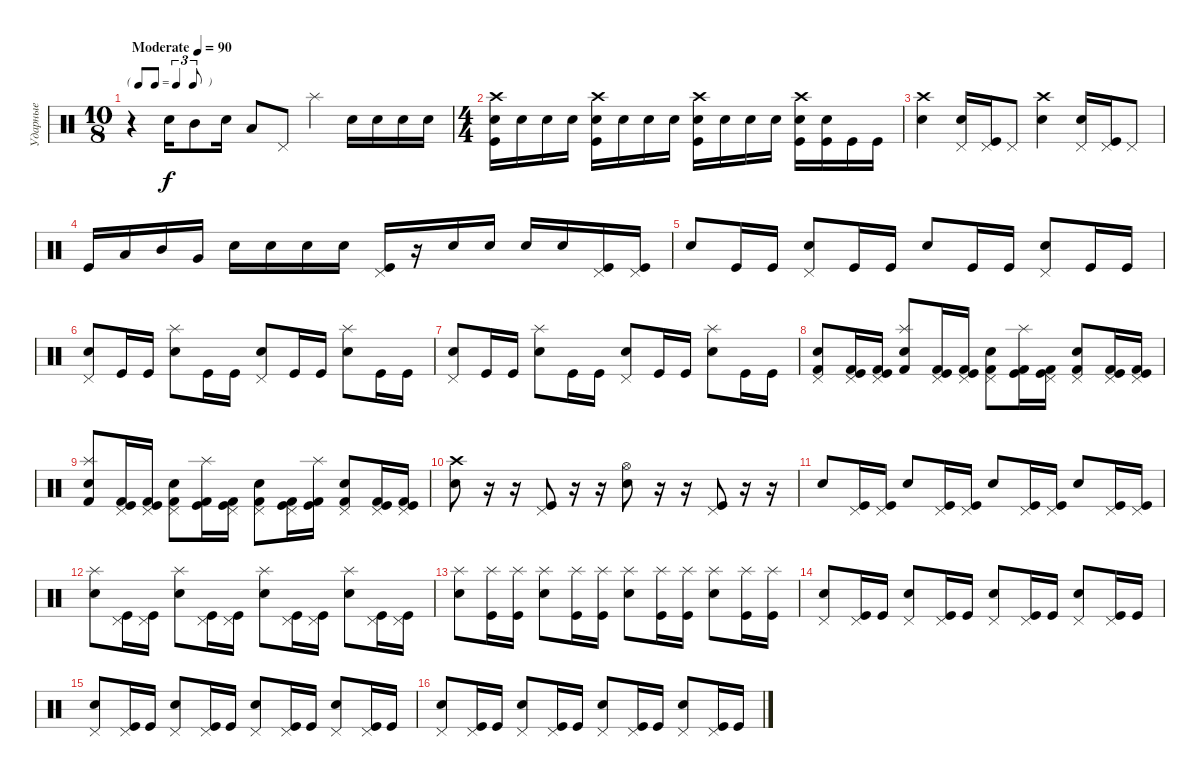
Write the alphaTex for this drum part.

\track ("Ударные" "Ударные") {instrument percussion}
\staff {score}
\articulation defaults
\ts (10 8)
\tf triplet8th
\tempo (90 "Moderate")
\clef neutral
\ks c
r.4{dy f} "Electric Snare (hit)".16 "Mid Tom (hit)".8 "Electric Snare (hit)".16 "Low Tom (hit)".8 "Pedal Hi-Hat (hit)".8 "Splash (hit)".4 "Electric Snare (hit)".16 "Electric Snare (hit)".16 "Electric Snare (hit)".16 "Electric Snare (hit)".16 |
\ts (4 4)
("Electric Snare (hit)" "Kick (hit)" "Crash high (hit)").16 "Electric Snare (hit)".16 "Electric Snare (hit)".16 "Electric Snare (hit)".16 ("Electric Snare (hit)" "Kick (hit)" "Crash high (hit)").16 "Electric Snare (hit)".16 "Electric Snare (hit)".16 "Electric Snare (hit)".16 ("Electric Snare (hit)" "Kick (hit)" "Crash high (hit)").16 "Electric Snare (hit)".16 "Electric Snare (hit)".16 "Electric Snare (hit)".16 ("Electric Snare (hit)" "Kick (hit)" "Crash high (hit)").16 ("Snare (hit) 2" "Kick (hit)").16 "Kick (hit)".16 "Kick (hit)".16 |
("Crash high (hit)" "Electric Snare (hit)").4 ("Snare (hit) 2" "Pedal Hi-Hat (hit)").16 ("Kick (hit)" "Pedal Hi-Hat (hit)").16 "Pedal Hi-Hat (hit)".8 ("Crash high (hit)" "Electric Snare (hit)").4 ("Snare (hit) 2" "Pedal Hi-Hat (hit)").16 ("Kick (hit)" "Pedal Hi-Hat (hit)").16 "Pedal Hi-Hat (hit)".8 |
"Kick (hit)".16 "Low Tom (hit)".16 "Mid Tom (hit)".16 "Very Low Tom (hit)".16 "Electric Snare (hit)".16 "Electric Snare (hit)".16 "Electric Snare (hit)".16 "Electric Snare (hit)".16 ("Kick (hit)" "Pedal Hi-Hat (hit)").16 r.16 "Electric Snare (hit)".16 "Electric Snare (hit)".16 "Electric Snare (hit)".16 "Electric Snare (hit)".16 ("Kick (hit)" "Pedal Hi-Hat (hit)").16 ("Kick (hit)" "Pedal Hi-Hat (hit)").16 |
"Electric Snare (hit)".8 "Kick (hit)".16 "Kick (hit)".16 ("Electric Snare (hit)" "Pedal Hi-Hat (hit)").8 "Kick (hit)".16 "Kick (hit)".16 "Electric Snare (hit)".8 "Kick (hit)".16 "Kick (hit)".16 ("Electric Snare (hit)" "Pedal Hi-Hat (hit)").8 "Kick (hit)".16 "Kick (hit)".16 |
("Pedal Hi-Hat (hit)" "Electric Snare (hit)").8 "Kick (hit)".16 "Kick (hit)".16 ("Splash (hit)" "Electric Snare (hit)").8 "Kick (hit)".16 "Kick (hit)".16 ("Pedal Hi-Hat (hit)" "Electric Snare (hit)").8 "Kick (hit)".16 "Kick (hit)".16 ("Splash (hit)" "Electric Snare (hit)").8 "Kick (hit)".16 "Kick (hit)".16 |
("Pedal Hi-Hat (hit)" "Electric Snare (hit)").8 "Kick (hit)".16 "Kick (hit)".16 ("Splash (hit)" "Electric Snare (hit)").8 "Kick (hit)".16 "Kick (hit)".16 ("Pedal Hi-Hat (hit)" "Electric Snare (hit)").8 "Kick (hit)".16 "Kick (hit)".16 ("Splash (hit)" "Electric Snare (hit)").8 "Kick (hit)".16 "Kick (hit)".16 |
("Pedal Hi-Hat (hit)" "Kick (hit) 2" "Electric Snare (hit)").8 ("Pedal Hi-Hat (hit)" "Kick (hit) 2" "Kick (hit)").16 ("Pedal Hi-Hat (hit)" "Kick (hit) 2" "Kick (hit)").16 ("Splash (hit)" "Kick (hit) 2" "Electric Snare (hit)").8 ("Pedal Hi-Hat (hit)" "Kick (hit) 2" "Kick (hit)").16 ("Pedal Hi-Hat (hit)" "Kick (hit) 2" "Kick (hit)").16 ("Pedal Hi-Hat (hit)" "Kick (hit) 2" "Electric Snare (hit)").8 ("Splash (hit)" "Kick (hit) 2" "Kick (hit)").16 ("Pedal Hi-Hat (hit)" "Kick (hit) 2" "Kick (hit)").16 ("Pedal Hi-Hat (hit)" "Kick (hit) 2" "Electric Snare (hit)").8 ("Pedal Hi-Hat (hit)" "Kick (hit) 2" "Kick (hit)").16 ("Pedal Hi-Hat (hit)" "Kick (hit) 2" "Kick (hit)").16 |
("Splash (hit)" "Kick (hit) 2" "Electric Snare (hit)").8 ("Pedal Hi-Hat (hit)" "Kick (hit) 2" "Kick (hit)").16 ("Pedal Hi-Hat (hit)" "Kick (hit) 2" "Kick (hit)").16 ("Pedal Hi-Hat (hit)" "Kick (hit) 2" "Electric Snare (hit)").8 ("Splash (hit)" "Kick (hit) 2" "Kick (hit)").16 ("Pedal Hi-Hat (hit)" "Kick (hit) 2" "Kick (hit)").16 ("Pedal Hi-Hat (hit)" "Kick (hit) 2" "Electric Snare (hit)").8 ("Pedal Hi-Hat (hit)" "Kick (hit) 2" "Kick (hit)").16 ("Splash (hit)" "Kick (hit) 2" "Kick (hit)").16 ("Pedal Hi-Hat (hit)" "Kick (hit) 2" "Electric Snare (hit)").8 ("Pedal Hi-Hat (hit)" "Kick (hit) 2" "Kick (hit)").16 ("Pedal Hi-Hat (hit)" "Kick (hit) 2" "Kick (hit)").16 |
("Electric Snare (hit)" "Crash high (hit)").8 r.16 r.16 ("Pedal Hi-Hat (hit)" "Kick (hit)").8 r.16 r.16 ("Electric Snare (hit)" "Hi-Hat (open)").8 r.16 r.16 ("Pedal Hi-Hat (hit)" "Kick (hit)").8 r.16 r.16 |
"Electric Snare (hit)".8 ("Pedal Hi-Hat (hit)" "Kick (hit)").16 ("Pedal Hi-Hat (hit)" "Kick (hit)").16 "Electric Snare (hit)".8 ("Pedal Hi-Hat (hit)" "Kick (hit)").16 ("Pedal Hi-Hat (hit)" "Kick (hit)").16 "Electric Snare (hit)".8 ("Pedal Hi-Hat (hit)" "Kick (hit)").16 ("Pedal Hi-Hat (hit)" "Kick (hit)").16 "Electric Snare (hit)".8 ("Pedal Hi-Hat (hit)" "Kick (hit)").16 ("Pedal Hi-Hat (hit)" "Kick (hit)").16 |
("Splash (hit)" "Electric Snare (hit)").8 ("Pedal Hi-Hat (hit)" "Kick (hit)").16 ("Pedal Hi-Hat (hit)" "Kick (hit)").16 ("Splash (hit)" "Electric Snare (hit)").8 ("Pedal Hi-Hat (hit)" "Kick (hit)").16 ("Pedal Hi-Hat (hit)" "Kick (hit)").16 ("Splash (hit)" "Electric Snare (hit)").8 ("Pedal Hi-Hat (hit)" "Kick (hit)").16 ("Pedal Hi-Hat (hit)" "Kick (hit)").16 ("Splash (hit)" "Electric Snare (hit)").8 ("Pedal Hi-Hat (hit)" "Kick (hit)").16 ("Pedal Hi-Hat (hit)" "Kick (hit)").16 |
("Splash (hit)" "Electric Snare (hit)").8 ("Splash (hit)" "Kick (hit)").16 ("Splash (hit)" "Kick (hit)").16 ("Splash (hit)" "Electric Snare (hit)").8 ("Splash (hit)" "Kick (hit)").16 ("Splash (hit)" "Kick (hit)").16 ("Splash (hit)" "Electric Snare (hit)").8 ("Splash (hit)" "Kick (hit)").16 ("Splash (hit)" "Kick (hit)").16 ("Splash (hit)" "Electric Snare (hit)").8 ("Splash (hit)" "Kick (hit)").16 ("Splash (hit)" "Kick (hit)").16 |
("Pedal Hi-Hat (hit)" "Electric Snare (hit)").8 ("Pedal Hi-Hat (hit)" "Kick (hit)").16 "Kick (hit)".16 ("Pedal Hi-Hat (hit)" "Electric Snare (hit)").8 ("Pedal Hi-Hat (hit)" "Kick (hit)").16 "Kick (hit)".16 ("Pedal Hi-Hat (hit)" "Electric Snare (hit)").8 ("Pedal Hi-Hat (hit)" "Kick (hit)").16 "Kick (hit)".16 ("Pedal Hi-Hat (hit)" "Electric Snare (hit)").8 ("Pedal Hi-Hat (hit)" "Kick (hit)").16 "Kick (hit)".16 |
("Pedal Hi-Hat (hit)" "Electric Snare (hit)").8 ("Pedal Hi-Hat (hit)" "Kick (hit)").16 "Kick (hit)".16 ("Pedal Hi-Hat (hit)" "Electric Snare (hit)").8 ("Pedal Hi-Hat (hit)" "Kick (hit)").16 "Kick (hit)".16 ("Pedal Hi-Hat (hit)" "Electric Snare (hit)").8 ("Pedal Hi-Hat (hit)" "Kick (hit)").16 "Kick (hit)".16 ("Pedal Hi-Hat (hit)" "Electric Snare (hit)").8 ("Pedal Hi-Hat (hit)" "Kick (hit)").16 "Kick (hit)".16 |
("Pedal Hi-Hat (hit)" "Electric Snare (hit)").8 ("Pedal Hi-Hat (hit)" "Kick (hit)").16 "Kick (hit)".16 ("Pedal Hi-Hat (hit)" "Electric Snare (hit)").8 ("Pedal Hi-Hat (hit)" "Kick (hit)").16 "Kick (hit)".16 ("Pedal Hi-Hat (hit)" "Electric Snare (hit)").8 ("Pedal Hi-Hat (hit)" "Kick (hit)").16 "Kick (hit)".16 ("Pedal Hi-Hat (hit)" "Electric Snare (hit)").8 ("Pedal Hi-Hat (hit)" "Kick (hit)").16 "Kick (hit)".16
